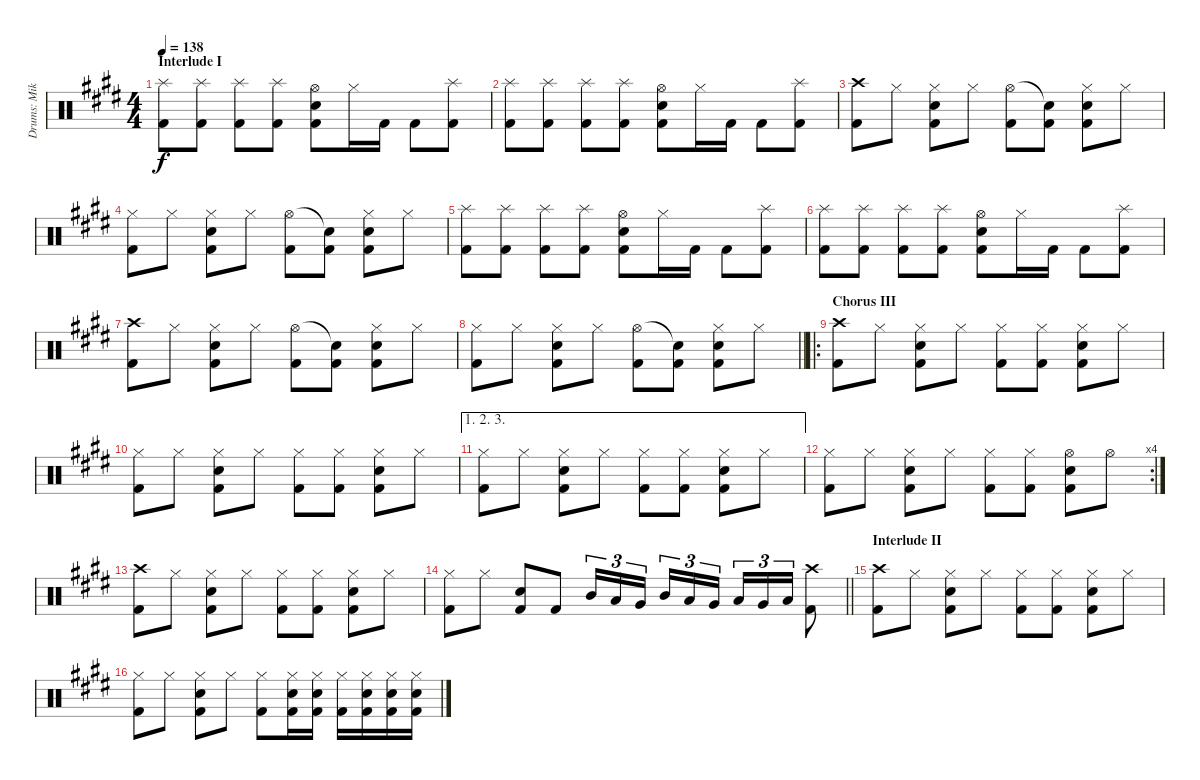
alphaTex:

\track ("Drums: Mike" "Drums: Mik") {instrument percussion}
\staff {score}
\articulation defaults
\ts (4 4)
\section ("" "Interlude I")
\tempo 138
\clef neutral
\ks e
("Splash (hit)" "Kick (hit) 2").8{dy f} ("Splash (hit)" "Kick (hit) 2").8 ("Splash (hit)" "Kick (hit) 2").8 ("Splash (hit)" "Kick (hit) 2").8 ("Hi-Hat (open)" "Snare (hit) 2" "Kick (hit) 2").8 "Hi-Hat (closed)".16 "Kick (hit) 2".16 "Kick (hit) 2".8 ("Splash (hit)" "Kick (hit) 2").8 |
("Splash (hit)" "Kick (hit) 2").8 ("Splash (hit)" "Kick (hit) 2").8 ("Splash (hit)" "Kick (hit) 2").8 ("Splash (hit)" "Kick (hit) 2").8 ("Hi-Hat (open)" "Snare (hit) 2" "Kick (hit) 2").8 "Hi-Hat (closed)".16 "Kick (hit) 2".16 "Kick (hit) 2".8 ("Splash (hit)" "Kick (hit) 2").8 |
("Crash high (hit)" "Kick (hit) 2").8 "Hi-Hat (closed)".8 ("Hi-Hat (closed)" "Electric Snare (hit)" "Kick (hit) 2").8 "Hi-Hat (closed)".8 ("Hi-Hat (open)" "Kick (hit) 2").8 ("Snare (hit)"{t} "Kick (hit) 2").8 ("Hi-Hat (closed)" "Electric Snare (hit)" "Kick (hit) 2").8 "Hi-Hat (closed)".8 |
("Hi-Hat (closed)" "Kick (hit) 2").8 "Hi-Hat (closed)".8 ("Hi-Hat (closed)" "Electric Snare (hit)" "Kick (hit) 2").8 "Hi-Hat (closed)".8 ("Hi-Hat (open)" "Kick (hit) 2").8 ("Snare (hit)"{t} "Kick (hit) 2").8 ("Hi-Hat (closed)" "Electric Snare (hit)" "Kick (hit) 2").8 "Hi-Hat (closed)".8 |
("Splash (hit)" "Kick (hit) 2").8 ("Splash (hit)" "Kick (hit) 2").8 ("Splash (hit)" "Kick (hit) 2").8 ("Splash (hit)" "Kick (hit) 2").8 ("Hi-Hat (open)" "Snare (hit) 2" "Kick (hit) 2").8 "Hi-Hat (closed)".16 "Kick (hit) 2".16 "Kick (hit) 2".8 ("Splash (hit)" "Kick (hit) 2").8 |
("Splash (hit)" "Kick (hit) 2").8 ("Splash (hit)" "Kick (hit) 2").8 ("Splash (hit)" "Kick (hit) 2").8 ("Splash (hit)" "Kick (hit) 2").8 ("Hi-Hat (open)" "Snare (hit) 2" "Kick (hit) 2").8 "Hi-Hat (closed)".16 "Kick (hit) 2".16 "Kick (hit) 2".8 ("Splash (hit)" "Kick (hit) 2").8 |
("Crash high (hit)" "Kick (hit) 2").8 "Hi-Hat (closed)".8 ("Hi-Hat (closed)" "Electric Snare (hit)" "Kick (hit) 2").8 "Hi-Hat (closed)".8 ("Hi-Hat (open)" "Kick (hit) 2").8 ("Snare (hit)"{t} "Kick (hit) 2").8 ("Hi-Hat (closed)" "Electric Snare (hit)" "Kick (hit) 2").8 "Hi-Hat (closed)".8 |
\barLineRight lightlight
("Hi-Hat (closed)" "Kick (hit) 2").8 "Hi-Hat (closed)".8 ("Hi-Hat (closed)" "Electric Snare (hit)" "Kick (hit) 2").8 "Hi-Hat (closed)".8 ("Hi-Hat (open)" "Kick (hit) 2").8 ("Snare (hit)"{t} "Kick (hit) 2").8 ("Hi-Hat (closed)" "Electric Snare (hit)" "Kick (hit) 2").8 "Hi-Hat (closed)".8 |
\ro
\section ("" "Chorus III")
("Crash high (hit)" "Kick (hit) 2").8 "Hi-Hat (closed)".8 ("Hi-Hat (closed)" "Electric Snare (hit)" "Kick (hit) 2").8 "Hi-Hat (closed)".8 ("Hi-Hat (closed)" "Kick (hit) 2").8 ("Hi-Hat (closed)" "Kick (hit) 2").8 ("Hi-Hat (closed)" "Electric Snare (hit)" "Kick (hit) 2").8 "Hi-Hat (closed)".8 |
("Hi-Hat (closed)" "Kick (hit) 2").8 "Hi-Hat (closed)".8 ("Hi-Hat (closed)" "Electric Snare (hit)" "Kick (hit) 2").8 "Hi-Hat (closed)".8 ("Hi-Hat (closed)" "Kick (hit) 2").8 ("Hi-Hat (closed)" "Kick (hit) 2").8 ("Hi-Hat (closed)" "Electric Snare (hit)" "Kick (hit) 2").8 "Hi-Hat (closed)".8 |
\ae (1 2 3)
("Hi-Hat (closed)" "Kick (hit) 2").8 "Hi-Hat (closed)".8 ("Hi-Hat (closed)" "Electric Snare (hit)" "Kick (hit) 2").8 "Hi-Hat (closed)".8 ("Hi-Hat (closed)" "Kick (hit) 2").8 ("Hi-Hat (closed)" "Kick (hit) 2").8 ("Hi-Hat (closed)" "Electric Snare (hit)" "Kick (hit) 2").8 "Hi-Hat (closed)".8 |
\rc 4
("Hi-Hat (closed)" "Kick (hit) 2").8 "Hi-Hat (closed)".8 ("Hi-Hat (closed)" "Electric Snare (hit)" "Kick (hit) 2").8 "Hi-Hat (closed)".8 ("Hi-Hat (closed)" "Kick (hit) 2").8 ("Hi-Hat (closed)" "Kick (hit) 2").8 ("Hi-Hat (open)" "Electric Snare (hit)" "Kick (hit) 2").8 "Hi-Hat (open)".8 |
("Crash high (hit)" "Kick (hit) 2").8 "Hi-Hat (closed)".8 ("Hi-Hat (closed)" "Electric Snare (hit)" "Kick (hit) 2").8 "Hi-Hat (closed)".8 ("Hi-Hat (closed)" "Kick (hit) 2").8 ("Hi-Hat (closed)" "Kick (hit) 2").8 ("Hi-Hat (closed)" "Electric Snare (hit)" "Kick (hit) 2").8 "Hi-Hat (closed)".8 |
\barLineRight lightlight
("Hi-Hat (closed)" "Kick (hit) 2").8 "Hi-Hat (closed)".8 ("Electric Snare (hit)" "Kick (hit) 2").8 "Kick (hit) 2".8 "Mid Tom (hit)".16{tu (3 2)} "Low Tom (hit)".16{tu (3 2)} "Very Low Tom (hit)".16{tu (3 2) beam splitsecondary} "Mid Tom (hit)".16{tu (3 2)} "Low Tom (hit)".16{tu (3 2)} "Very Low Tom (hit)".16{tu (3 2)} "Low Tom (hit)".16{tu (3 2)} "Very Low Tom (hit)".16{tu (3 2)} "Low Floor Tom (hit)".16{tu (3 2)} ("Crash high (hit)" "Kick (hit) 2").8 |
\section ("" "Interlude II")
("Crash high (hit)" "Kick (hit) 2").8 "Hi-Hat (closed)".8 ("Hi-Hat (closed)" "Electric Snare (hit)" "Kick (hit) 2").8 "Hi-Hat (closed)".8 ("Hi-Hat (closed)" "Kick (hit) 2").8 ("Hi-Hat (closed)" "Kick (hit) 2").8 ("Hi-Hat (closed)" "Electric Snare (hit)" "Kick (hit) 2").8 "Hi-Hat (closed)".8 |
("Hi-Hat (closed)" "Kick (hit) 2").8 "Hi-Hat (closed)".8 ("Hi-Hat (closed)" "Electric Snare (hit)" "Kick (hit) 2").8 "Hi-Hat (closed)".8 ("Hi-Hat (closed)" "Kick (hit) 2").8 ("Hi-Hat (closed)" "Electric Snare (hit)" "Kick (hit) 2").16 ("Hi-Hat (closed)" "Electric Snare (hit)" "Kick (hit) 2").16 ("Hi-Hat (closed)" "Kick (hit) 2").16 ("Hi-Hat (closed)" "Electric Snare (hit)" "Kick (hit) 2").16 ("Hi-Hat (closed)" "Electric Snare (hit)" "Kick (hit) 2").16 ("Hi-Hat (closed)" "Electric Snare (hit)" "Kick (hit) 2").16
